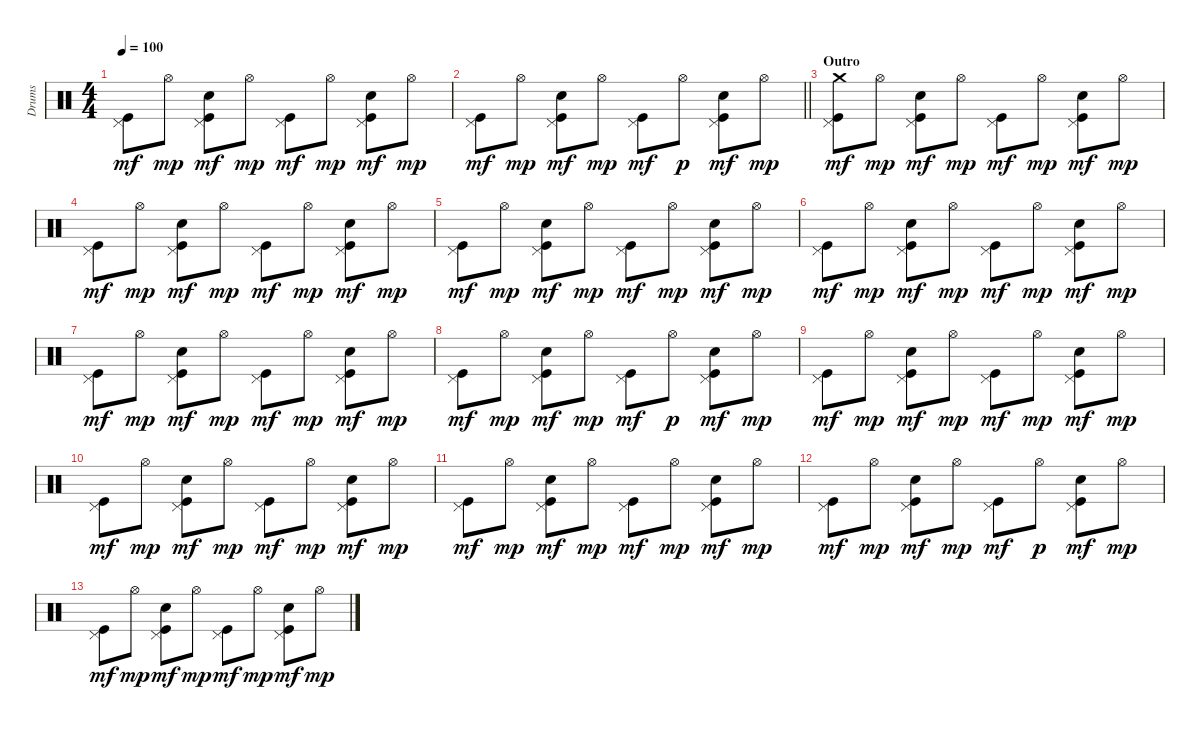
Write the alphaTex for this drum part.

\track ("Drums" "Drums") {instrument percussion}
\staff {score}
\articulation defaults
\ts (4 4)
\tempo 100
\clef neutral
\ks c
("Pedal Hi-Hat (hit)" "Kick (hit)").8{dy mf} "Hi-Hat (open)".8{dy mp} ("Pedal Hi-Hat (hit)" "Electric Snare (hit)" "Kick (hit)").8{dy mf} "Hi-Hat (open)".8{dy mp} ("Pedal Hi-Hat (hit)" "Kick (hit)").8{dy mf} "Hi-Hat (open)".8{dy mp} ("Pedal Hi-Hat (hit)" "Electric Snare (hit)" "Kick (hit)").8{dy mf} "Hi-Hat (open)".8{dy mp} |
\barLineRight lightlight
("Pedal Hi-Hat (hit)" "Kick (hit)").8{dy mf} "Hi-Hat (open)".8{dy mp} ("Pedal Hi-Hat (hit)" "Electric Snare (hit)" "Kick (hit)").8{dy mf} "Hi-Hat (open)".8{dy mp} ("Pedal Hi-Hat (hit)" "Kick (hit)").8{dy mf} "Hi-Hat (open)".8{dy p} ("Pedal Hi-Hat (hit)" "Electric Snare (hit)" "Kick (hit)").8{dy mf} "Hi-Hat (open)".8{dy mp} |
\section ("" "Outro")
("Pedal Hi-Hat (hit)" "Crash medium (hit)" "Kick (hit)").8{dy mf} "Hi-Hat (open)".8{dy mp} ("Pedal Hi-Hat (hit)" "Electric Snare (hit)" "Kick (hit)").8{dy mf} "Hi-Hat (open)".8{dy mp} ("Pedal Hi-Hat (hit)" "Kick (hit)").8{dy mf} "Hi-Hat (open)".8{dy mp} ("Pedal Hi-Hat (hit)" "Electric Snare (hit)" "Kick (hit)").8{dy mf} "Hi-Hat (open)".8{dy mp} |
("Pedal Hi-Hat (hit)" "Kick (hit)").8{dy mf} "Hi-Hat (open)".8{dy mp} ("Pedal Hi-Hat (hit)" "Electric Snare (hit)" "Kick (hit)").8{dy mf} "Hi-Hat (open)".8{dy mp} ("Pedal Hi-Hat (hit)" "Kick (hit)").8{dy mf} "Hi-Hat (open)".8{dy mp} ("Pedal Hi-Hat (hit)" "Electric Snare (hit)" "Kick (hit)").8{dy mf} "Hi-Hat (open)".8{dy mp} |
("Pedal Hi-Hat (hit)" "Kick (hit)").8{dy mf} "Hi-Hat (open)".8{dy mp} ("Pedal Hi-Hat (hit)" "Electric Snare (hit)" "Kick (hit)").8{dy mf} "Hi-Hat (open)".8{dy mp} ("Pedal Hi-Hat (hit)" "Kick (hit)").8{dy mf} "Hi-Hat (open)".8{dy mp} ("Pedal Hi-Hat (hit)" "Electric Snare (hit)" "Kick (hit)").8{dy mf} "Hi-Hat (open)".8{dy mp} |
("Pedal Hi-Hat (hit)" "Kick (hit)").8{dy mf} "Hi-Hat (open)".8{dy mp} ("Pedal Hi-Hat (hit)" "Electric Snare (hit)" "Kick (hit)").8{dy mf} "Hi-Hat (open)".8{dy mp} ("Pedal Hi-Hat (hit)" "Kick (hit)").8{dy mf} "Hi-Hat (open)".8{dy mp} ("Pedal Hi-Hat (hit)" "Electric Snare (hit)" "Kick (hit)").8{dy mf} "Hi-Hat (open)".8{dy mp} |
("Pedal Hi-Hat (hit)" "Kick (hit)").8{dy mf} "Hi-Hat (open)".8{dy mp} ("Pedal Hi-Hat (hit)" "Electric Snare (hit)" "Kick (hit)").8{dy mf} "Hi-Hat (open)".8{dy mp} ("Pedal Hi-Hat (hit)" "Kick (hit)").8{dy mf} "Hi-Hat (open)".8{dy mp} ("Pedal Hi-Hat (hit)" "Electric Snare (hit)" "Kick (hit)").8{dy mf} "Hi-Hat (open)".8{dy mp} |
("Pedal Hi-Hat (hit)" "Kick (hit)").8{dy mf} "Hi-Hat (open)".8{dy mp} ("Pedal Hi-Hat (hit)" "Electric Snare (hit)" "Kick (hit)").8{dy mf} "Hi-Hat (open)".8{dy mp} ("Pedal Hi-Hat (hit)" "Kick (hit)").8{dy mf} "Hi-Hat (open)".8{dy p} ("Pedal Hi-Hat (hit)" "Electric Snare (hit)" "Kick (hit)").8{dy mf} "Hi-Hat (open)".8{dy mp} |
("Pedal Hi-Hat (hit)" "Kick (hit)").8{dy mf} "Hi-Hat (open)".8{dy mp} ("Pedal Hi-Hat (hit)" "Electric Snare (hit)" "Kick (hit)").8{dy mf} "Hi-Hat (open)".8{dy mp} ("Pedal Hi-Hat (hit)" "Kick (hit)").8{dy mf} "Hi-Hat (open)".8{dy mp} ("Pedal Hi-Hat (hit)" "Electric Snare (hit)" "Kick (hit)").8{dy mf} "Hi-Hat (open)".8{dy mp} |
("Pedal Hi-Hat (hit)" "Kick (hit)").8{dy mf} "Hi-Hat (open)".8{dy mp} ("Pedal Hi-Hat (hit)" "Electric Snare (hit)" "Kick (hit)").8{dy mf} "Hi-Hat (open)".8{dy mp} ("Pedal Hi-Hat (hit)" "Kick (hit)").8{dy mf} "Hi-Hat (open)".8{dy mp} ("Pedal Hi-Hat (hit)" "Electric Snare (hit)" "Kick (hit)").8{dy mf} "Hi-Hat (open)".8{dy mp} |
("Pedal Hi-Hat (hit)" "Kick (hit)").8{dy mf} "Hi-Hat (open)".8{dy mp} ("Pedal Hi-Hat (hit)" "Electric Snare (hit)" "Kick (hit)").8{dy mf} "Hi-Hat (open)".8{dy mp} ("Pedal Hi-Hat (hit)" "Kick (hit)").8{dy mf} "Hi-Hat (open)".8{dy mp} ("Pedal Hi-Hat (hit)" "Electric Snare (hit)" "Kick (hit)").8{dy mf} "Hi-Hat (open)".8{dy mp} |
("Pedal Hi-Hat (hit)" "Kick (hit)").8{dy mf} "Hi-Hat (open)".8{dy mp} ("Pedal Hi-Hat (hit)" "Electric Snare (hit)" "Kick (hit)").8{dy mf} "Hi-Hat (open)".8{dy mp} ("Pedal Hi-Hat (hit)" "Kick (hit)").8{dy mf} "Hi-Hat (open)".8{dy p} ("Pedal Hi-Hat (hit)" "Electric Snare (hit)" "Kick (hit)").8{dy mf} "Hi-Hat (open)".8{dy mp} |
("Pedal Hi-Hat (hit)" "Kick (hit)").8{dy mf} "Hi-Hat (open)".8{dy mp} ("Pedal Hi-Hat (hit)" "Electric Snare (hit)" "Kick (hit)").8{dy mf} "Hi-Hat (open)".8{dy mp} ("Pedal Hi-Hat (hit)" "Kick (hit)").8{dy mf} "Hi-Hat (open)".8{dy mp} ("Pedal Hi-Hat (hit)" "Electric Snare (hit)" "Kick (hit)").8{dy mf} "Hi-Hat (open)".8{dy mp}
